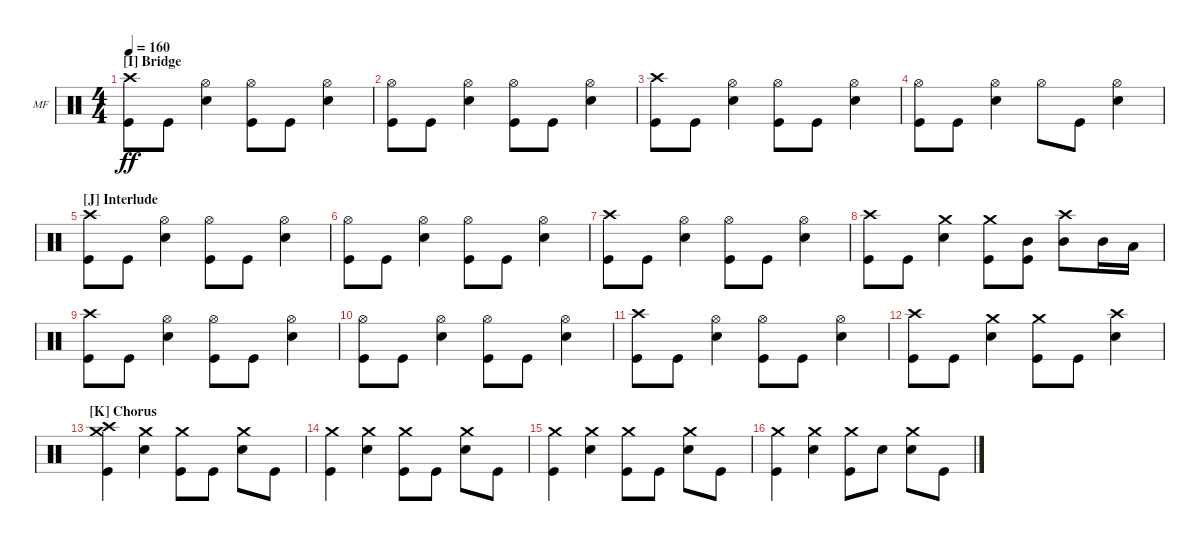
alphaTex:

\defaultSystemsLayout 4
\bracketExtendMode groupsimilarinstruments
\firstSystemTrackNameOrientation horizontal
\otherSystemsTrackNameOrientation horizontal
\track ("Mike Felumlee - Drums" "MF") {instrument percussion}
\staff {score}
\articulation defaults
\ts (4 4)
\section ("I" "Bridge")
\tempo 160
\clef neutral
\ks c
("Crash high (hit)" "Kick (hit)").8{dy ff} "Kick (hit)".8 ("Snare (hit) 2" "Hi-Hat (open)").4 ("Kick (hit)" "Hi-Hat (open)").8 "Kick (hit)".8 ("Snare (hit) 2" "Hi-Hat (open)").4 |
("Kick (hit)" "Hi-Hat (open)").8 "Kick (hit)".8 ("Snare (hit) 2" "Hi-Hat (open)").4 ("Kick (hit)" "Hi-Hat (open)").8 "Kick (hit)".8 ("Snare (hit) 2" "Hi-Hat (open)").4 |
("Crash high (hit)" "Kick (hit)").8 "Kick (hit)".8 ("Snare (hit) 2" "Hi-Hat (open)").4 ("Kick (hit)" "Hi-Hat (open)").8 "Kick (hit)".8 ("Snare (hit) 2" "Hi-Hat (open)").4 |
("Kick (hit)" "Hi-Hat (open)").8 "Kick (hit)".8 ("Snare (hit) 2" "Hi-Hat (open)").4 "Hi-Hat (open)".8 "Kick (hit)".8 ("Snare (hit) 2" "Hi-Hat (open)").4 |
\section ("J" "Interlude")
("Crash high (hit)" "Kick (hit)").8 "Kick (hit)".8 ("Hi-Hat (open)" "Snare (hit) 2").4 ("Hi-Hat (open)" "Kick (hit)").8 "Kick (hit)".8 ("Hi-Hat (open)" "Snare (hit) 2").4 |
("Hi-Hat (open)" "Kick (hit)").8 "Kick (hit)".8 ("Hi-Hat (open)" "Snare (hit) 2").4 ("Hi-Hat (open)" "Kick (hit)").8 "Kick (hit)".8 ("Hi-Hat (open)" "Snare (hit) 2").4 |
("Crash high (hit)" "Kick (hit)").8 "Kick (hit)".8 ("Hi-Hat (open)" "Snare (hit) 2").4 ("Hi-Hat (open)" "Kick (hit)").8 "Kick (hit)".8 ("Hi-Hat (open)" "Snare (hit) 2").4 |
("Crash high (hit)" "Kick (hit)").8 "Kick (hit)".8 ("Snare (hit) 2" "Crash medium (hit)").4 ("Kick (hit)" "Crash medium (hit)").8 ("Kick (hit)" "Mid Tom (hit)").8 ("Crash high (hit)" "Mid Tom (hit)").8 "Mid Tom (hit)".16 "Low Tom (hit)".16 |
("Crash high (hit)" "Kick (hit)").8 "Kick (hit)".8 ("Hi-Hat (open)" "Snare (hit) 2").4 ("Hi-Hat (open)" "Kick (hit)").8 "Kick (hit)".8 ("Hi-Hat (open)" "Snare (hit) 2").4 |
("Hi-Hat (open)" "Kick (hit)").8 "Kick (hit)".8 ("Hi-Hat (open)" "Snare (hit) 2").4 ("Hi-Hat (open)" "Kick (hit)").8 "Kick (hit)".8 ("Hi-Hat (open)" "Snare (hit) 2").4 |
("Crash high (hit)" "Kick (hit)").8 "Kick (hit)".8 ("Hi-Hat (open)" "Snare (hit) 2").4 ("Hi-Hat (open)" "Kick (hit)").8 "Kick (hit)".8 ("Hi-Hat (open)" "Snare (hit) 2").4 |
("Crash high (hit)" "Kick (hit)").8 "Kick (hit)".8 ("Snare (hit) 2" "Crash medium (hit)").4 ("Kick (hit)" "Crash medium (hit)").8 "Kick (hit)".8 ("Snare (hit) 2" "Crash high (hit)").4 |
\section ("K" "Chorus")
("Crash high (hit)" "Crash medium (hit)" "Kick (hit)").4 ("Snare (hit) 2" "Crash medium (hit)").4 ("Kick (hit)" "Crash medium (hit)").8 "Kick (hit)".8 ("Snare (hit) 2" "Crash medium (hit)").8 "Kick (hit)".8 |
("Kick (hit)" "Crash medium (hit)").4 ("Snare (hit) 2" "Crash medium (hit)").4 ("Kick (hit)" "Crash medium (hit)").8 "Kick (hit)".8 ("Snare (hit) 2" "Crash medium (hit)").8 "Kick (hit)".8 |
("Kick (hit)" "Crash medium (hit)").4 ("Snare (hit) 2" "Crash medium (hit)").4 ("Kick (hit)" "Crash medium (hit)").8 "Kick (hit)".8 ("Snare (hit) 2" "Crash medium (hit)").8 "Kick (hit)".8 |
("Kick (hit)" "Crash medium (hit)").4 ("Snare (hit) 2" "Crash medium (hit)").4 ("Kick (hit)" "Crash medium (hit)").8 "Snare (hit) 2".8 ("Snare (hit) 2" "Crash medium (hit)").8 "Kick (hit)".8
